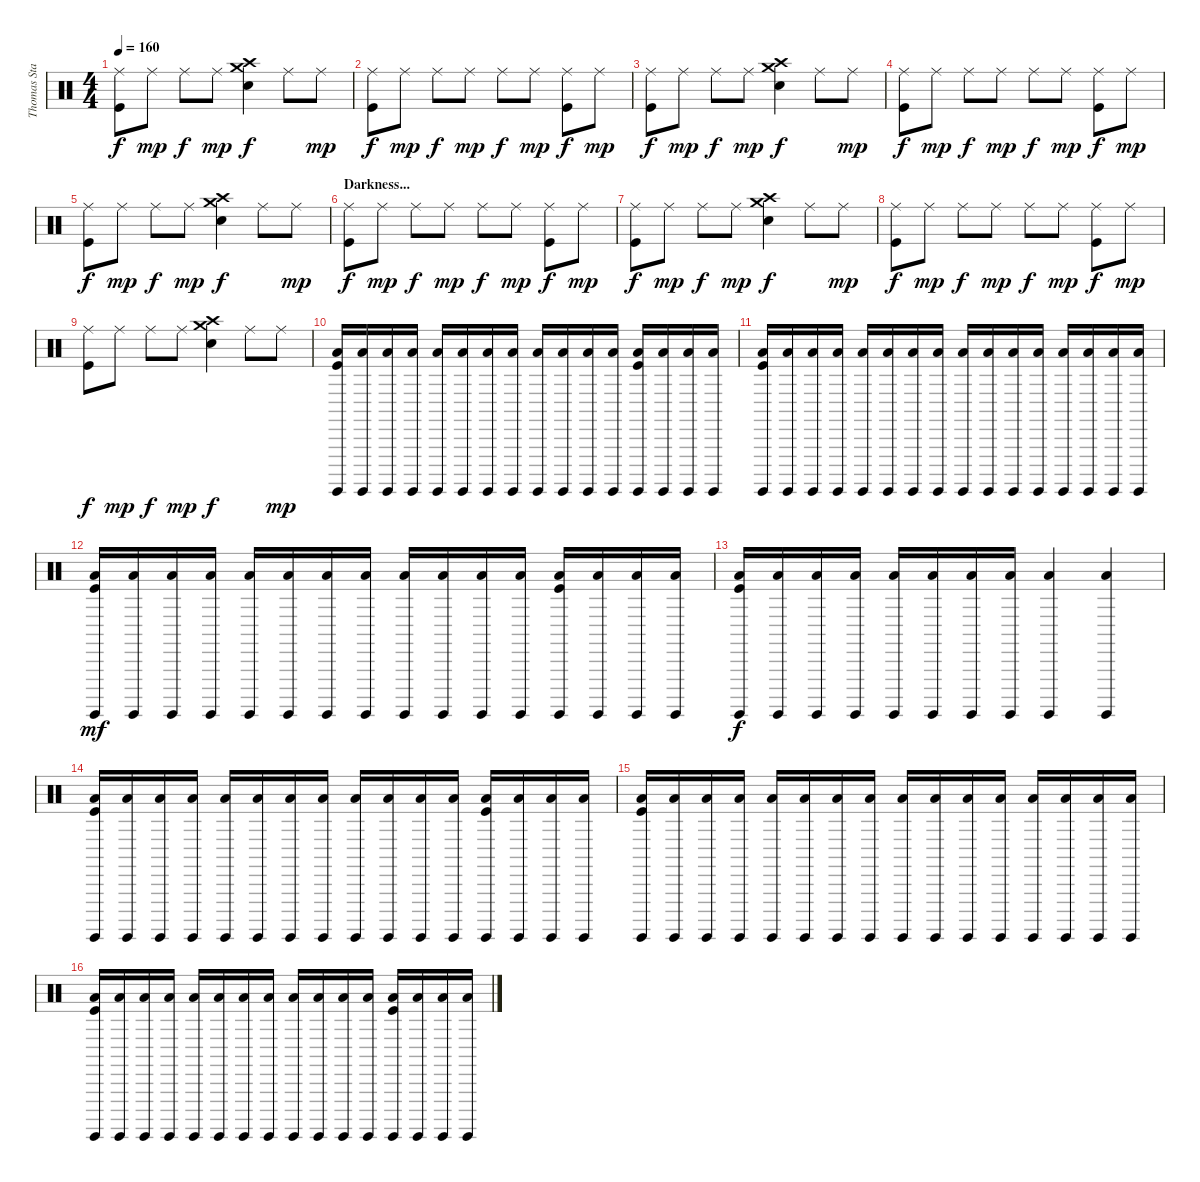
\track ("Thomas Stauch" "Thomas Sta") {instrument percussion}
\staff {score}
\articulation defaults
\ts (4 4)
\tempo 160
\clef neutral
\ks c
("Ride (middle)" "Kick (hit)").8{dy f} "Ride (middle)".8{dy mp} "Ride (middle)".8{dy f} "Ride (middle)".8{dy mp} ("Crash medium (hit)" "Crash high (hit)" "Electric Snare (hit)").4{dy f} "Ride (middle)".8 "Ride (middle)".8{dy mp} |
("Ride (middle)" "Kick (hit)").8{dy f} "Ride (middle)".8{dy mp} "Ride (middle)".8{dy f} "Ride (middle)".8{dy mp} "Ride (middle)".8{dy f} "Ride (middle)".8{dy mp} ("Ride (middle)" "Kick (hit)").8{dy f} "Ride (middle)".8{dy mp} |
("Ride (middle)" "Kick (hit)").8{dy f} "Ride (middle)".8{dy mp} "Ride (middle)".8{dy f} "Ride (middle)".8{dy mp} ("Crash medium (hit)" "Crash high (hit)" "Electric Snare (hit)").4{dy f} "Ride (middle)".8 "Ride (middle)".8{dy mp} |
("Ride (middle)" "Kick (hit)").8{dy f} "Ride (middle)".8{dy mp} "Ride (middle)".8{dy f} "Ride (middle)".8{dy mp} "Ride (middle)".8{dy f} "Ride (middle)".8{dy mp} ("Ride (middle)" "Kick (hit)").8{dy f} "Ride (middle)".8{dy mp} |
("Ride (middle)" "Kick (hit)").8{dy f} "Ride (middle)".8{dy mp} "Ride (middle)".8{dy f} "Ride (middle)".8{dy mp} ("Crash medium (hit)" "Crash high (hit)" "Electric Snare (hit)").4{dy f} "Ride (middle)".8 "Ride (middle)".8{dy mp} |
\section ("" "Darkness...")
("Ride (middle)" "Kick (hit)").8{dy f} "Ride (middle)".8{dy mp} "Ride (middle)".8{dy f} "Ride (middle)".8{dy mp} "Ride (middle)".8{dy f} "Ride (middle)".8{dy mp} ("Ride (middle)" "Kick (hit)").8{dy f} "Ride (middle)".8{dy mp} |
("Ride (middle)" "Kick (hit)").8{dy f} "Ride (middle)".8{dy mp} "Ride (middle)".8{dy f} "Ride (middle)".8{dy mp} ("Crash medium (hit)" "Crash high (hit)" "Electric Snare (hit)").4{dy f} "Ride (middle)".8 "Ride (middle)".8{dy mp} |
("Ride (middle)" "Kick (hit)").8{dy f} "Ride (middle)".8{dy mp} "Ride (middle)".8{dy f} "Ride (middle)".8{dy mp} "Ride (middle)".8{dy f} "Ride (middle)".8{dy mp} ("Ride (middle)" "Kick (hit)").8{dy f} "Ride (middle)".8{dy mp} |
("Ride (middle)" "Kick (hit)").8{dy f} "Ride (middle)".8{dy mp} "Ride (middle)".8{dy f} "Ride (middle)".8{dy mp} ("Crash medium (hit)" "Crash high (hit)" "Electric Snare (hit)").4{dy f} "Ride (middle)".8 "Ride (middle)".8{dy mp} |
("Surdo (hit)" "Low Floor Tom (hit)" "Kick (hit)").16 ("Surdo (hit)" "Low Floor Tom (hit)").16 ("Surdo (hit)" "Low Floor Tom (hit)").16 ("Surdo (hit)" "Low Floor Tom (hit)").16 ("Surdo (hit)" "Low Floor Tom (hit)").16 ("Surdo (hit)" "Low Floor Tom (hit)").16 ("Surdo (hit)" "Low Floor Tom (hit)").16 ("Surdo (hit)" "Low Floor Tom (hit)").16 ("Surdo (hit)" "Low Floor Tom (hit)").16 ("Surdo (hit)" "Low Floor Tom (hit)").16 ("Surdo (hit)" "Low Floor Tom (hit)").16 ("Surdo (hit)" "Low Floor Tom (hit)").16 ("Surdo (hit)" "Low Floor Tom (hit)" "Kick (hit)").16 ("Surdo (hit)" "Low Floor Tom (hit)").16 ("Surdo (hit)" "Low Floor Tom (hit)").16 ("Surdo (hit)" "Low Floor Tom (hit)").16 |
("Surdo (hit)" "Low Floor Tom (hit)" "Kick (hit)").16 ("Surdo (hit)" "Low Floor Tom (hit)").16 ("Surdo (hit)" "Low Floor Tom (hit)").16 ("Surdo (hit)" "Low Floor Tom (hit)").16 ("Surdo (hit)" "Low Floor Tom (hit)").16 ("Surdo (hit)" "Low Floor Tom (hit)").16 ("Surdo (hit)" "Low Floor Tom (hit)").16 ("Surdo (hit)" "Low Floor Tom (hit)").16 ("Surdo (hit)" "Low Floor Tom (hit)").16 ("Surdo (hit)" "Low Floor Tom (hit)").16 ("Surdo (hit)" "Low Floor Tom (hit)").16 ("Surdo (hit)" "Low Floor Tom (hit)").16 ("Surdo (hit)" "Low Floor Tom (hit)").16 ("Surdo (hit)" "Low Floor Tom (hit)").16 ("Surdo (hit)" "Low Floor Tom (hit)").16 ("Surdo (hit)" "Low Floor Tom (hit)").16 |
("Surdo (hit)" "Low Floor Tom (hit)" "Kick (hit)").16{dy mf} ("Surdo (hit)" "Low Floor Tom (hit)").16 ("Surdo (hit)" "Low Floor Tom (hit)").16 ("Surdo (hit)" "Low Floor Tom (hit)").16 ("Surdo (hit)" "Low Floor Tom (hit)").16 ("Surdo (hit)" "Low Floor Tom (hit)").16 ("Surdo (hit)" "Low Floor Tom (hit)").16 ("Surdo (hit)" "Low Floor Tom (hit)").16 ("Surdo (hit)" "Low Floor Tom (hit)").16 ("Surdo (hit)" "Low Floor Tom (hit)").16 ("Surdo (hit)" "Low Floor Tom (hit)").16 ("Surdo (hit)" "Low Floor Tom (hit)").16 ("Surdo (hit)" "Low Floor Tom (hit)" "Kick (hit)").16 ("Surdo (hit)" "Low Floor Tom (hit)").16 ("Surdo (hit)" "Low Floor Tom (hit)").16 ("Surdo (hit)" "Low Floor Tom (hit)").16 |
("Surdo (hit)" "Low Floor Tom (hit)" "Kick (hit)").16{dy f} ("Surdo (hit)" "Low Floor Tom (hit)").16 ("Surdo (hit)" "Low Floor Tom (hit)").16 ("Surdo (hit)" "Low Floor Tom (hit)").16 ("Surdo (hit)" "Low Floor Tom (hit)").16 ("Surdo (hit)" "Low Floor Tom (hit)").16 ("Surdo (hit)" "Low Floor Tom (hit)").16 ("Surdo (hit)" "Low Floor Tom (hit)").16 ("Surdo (hit)" "Low Floor Tom (hit)").4 ("Surdo (hit)" "Low Floor Tom (hit)").4 |
("Surdo (hit)" "Low Floor Tom (hit)" "Kick (hit)").16 ("Surdo (hit)" "Low Floor Tom (hit)").16 ("Surdo (hit)" "Low Floor Tom (hit)").16 ("Surdo (hit)" "Low Floor Tom (hit)").16 ("Surdo (hit)" "Low Floor Tom (hit)").16 ("Surdo (hit)" "Low Floor Tom (hit)").16 ("Surdo (hit)" "Low Floor Tom (hit)").16 ("Surdo (hit)" "Low Floor Tom (hit)").16 ("Surdo (hit)" "Low Floor Tom (hit)").16 ("Surdo (hit)" "Low Floor Tom (hit)").16 ("Surdo (hit)" "Low Floor Tom (hit)").16 ("Surdo (hit)" "Low Floor Tom (hit)").16 ("Surdo (hit)" "Low Floor Tom (hit)" "Kick (hit)").16 ("Surdo (hit)" "Low Floor Tom (hit)").16 ("Surdo (hit)" "Low Floor Tom (hit)").16 ("Surdo (hit)" "Low Floor Tom (hit)").16 |
("Surdo (hit)" "Low Floor Tom (hit)" "Kick (hit)").16 ("Surdo (hit)" "Low Floor Tom (hit)").16 ("Surdo (hit)" "Low Floor Tom (hit)").16 ("Surdo (hit)" "Low Floor Tom (hit)").16 ("Surdo (hit)" "Low Floor Tom (hit)").16 ("Surdo (hit)" "Low Floor Tom (hit)").16 ("Surdo (hit)" "Low Floor Tom (hit)").16 ("Surdo (hit)" "Low Floor Tom (hit)").16 ("Surdo (hit)" "Low Floor Tom (hit)").16 ("Surdo (hit)" "Low Floor Tom (hit)").16 ("Surdo (hit)" "Low Floor Tom (hit)").16 ("Surdo (hit)" "Low Floor Tom (hit)").16 ("Surdo (hit)" "Low Floor Tom (hit)").16 ("Surdo (hit)" "Low Floor Tom (hit)").16 ("Surdo (hit)" "Low Floor Tom (hit)").16 ("Surdo (hit)" "Low Floor Tom (hit)").16 |
("Surdo (hit)" "Low Floor Tom (hit)" "Kick (hit)").16 ("Surdo (hit)" "Low Floor Tom (hit)").16 ("Surdo (hit)" "Low Floor Tom (hit)").16 ("Surdo (hit)" "Low Floor Tom (hit)").16 ("Surdo (hit)" "Low Floor Tom (hit)").16 ("Surdo (hit)" "Low Floor Tom (hit)").16 ("Surdo (hit)" "Low Floor Tom (hit)").16 ("Surdo (hit)" "Low Floor Tom (hit)").16 ("Surdo (hit)" "Low Floor Tom (hit)").16 ("Surdo (hit)" "Low Floor Tom (hit)").16 ("Surdo (hit)" "Low Floor Tom (hit)").16 ("Surdo (hit)" "Low Floor Tom (hit)").16 ("Surdo (hit)" "Low Floor Tom (hit)" "Kick (hit)").16 ("Surdo (hit)" "Low Floor Tom (hit)").16 ("Surdo (hit)" "Low Floor Tom (hit)").16 ("Surdo (hit)" "Low Floor Tom (hit)").16
